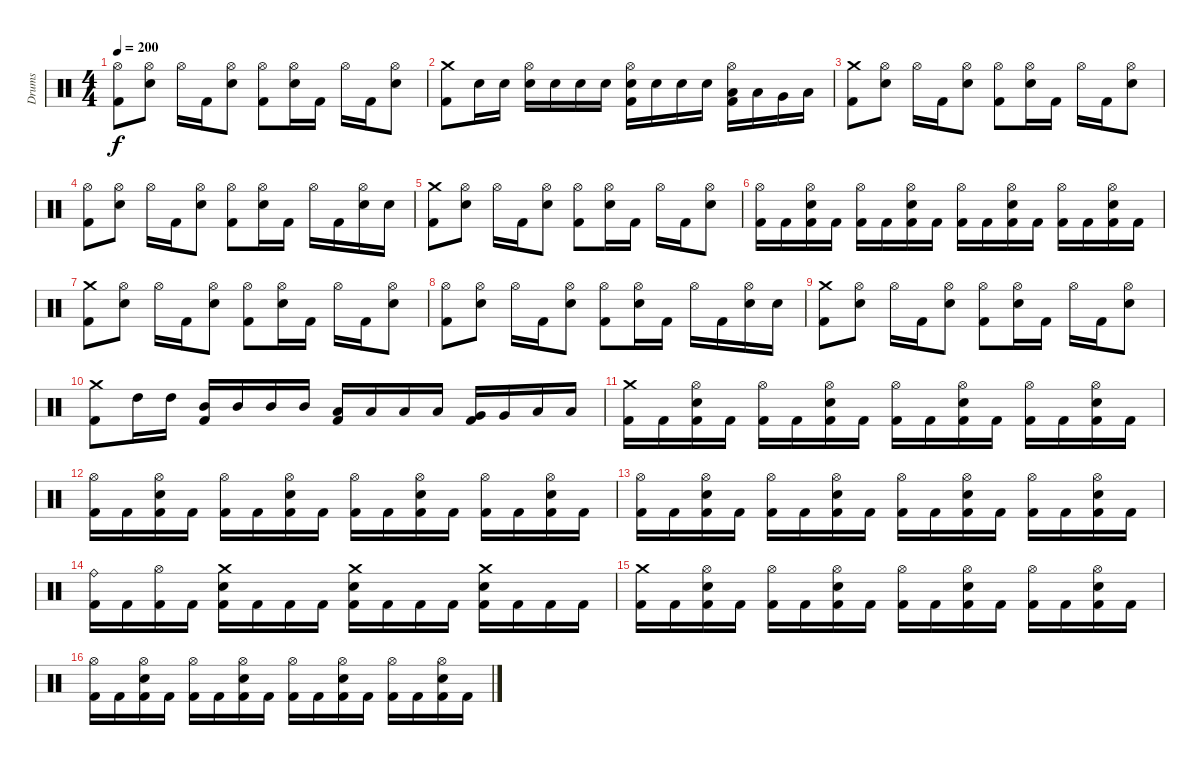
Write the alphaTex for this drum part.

\track ("Drums" "Drums") {instrument percussion}
\staff {score}
\articulation defaults
\ts (4 4)
\tempo 200
\clef neutral
\ks c
("Hi-Hat (open)" "Kick (hit) 2").8{dy f} ("Hi-Hat (open)" "Snare (hit) 2").8 "Hi-Hat (open)".16 "Kick (hit) 2".16 ("Hi-Hat (open)" "Snare (hit) 2").8 ("Hi-Hat (open)" "Kick (hit) 2").8 ("Hi-Hat (open)" "Snare (hit) 2").16 "Kick (hit) 2".16 "Hi-Hat (open)".16 "Kick (hit) 2".16 ("Hi-Hat (open)" "Snare (hit) 2").8 |
("Crash medium (hit)" "Kick (hit) 2").8 "Snare (hit) 2".16 "Snare (hit) 2".16 ("Hi-Hat (open)" "Snare (hit) 2").16 "Snare (hit) 2".16 "Snare (hit) 2".16 "Snare (hit) 2".16 ("Hi-Hat (open)" "Snare (hit) 2" "Kick (hit) 2").16 "Snare (hit) 2".16 "Snare (hit) 2".16 "Snare (hit) 2".16 ("Hi-Hat (open)" "Low Tom (hit)" "Kick (hit) 2").16 "Low Tom (hit)".16 "Very Low Tom (hit)".16 "Low Floor Tom (hit)".16 |
("Crash medium (hit)" "Kick (hit) 2").8 ("Hi-Hat (open)" "Snare (hit) 2").8 "Hi-Hat (open)".16 "Kick (hit) 2".16 ("Hi-Hat (open)" "Snare (hit) 2").8 ("Hi-Hat (open)" "Kick (hit) 2").8 ("Hi-Hat (open)" "Snare (hit) 2").16 "Kick (hit) 2".16 "Hi-Hat (open)".16 "Kick (hit) 2".16 ("Hi-Hat (open)" "Snare (hit) 2").8 |
("Hi-Hat (open)" "Kick (hit) 2").8 ("Hi-Hat (open)" "Snare (hit) 2").8 "Hi-Hat (open)".16 "Kick (hit) 2".16 ("Hi-Hat (open)" "Snare (hit) 2").8 ("Hi-Hat (open)" "Kick (hit) 2").8 ("Hi-Hat (open)" "Snare (hit) 2").16 "Kick (hit) 2".16 "Hi-Hat (open)".16 "Kick (hit) 2".16 ("Hi-Hat (open)" "Snare (hit) 2").16 "Snare (hit) 2".16 |
("Crash medium (hit)" "Kick (hit) 2").8 ("Hi-Hat (open)" "Snare (hit) 2").8 "Hi-Hat (open)".16 "Kick (hit) 2".16 ("Hi-Hat (open)" "Snare (hit) 2").8 ("Hi-Hat (open)" "Kick (hit) 2").8 ("Hi-Hat (open)" "Snare (hit) 2").16 "Kick (hit) 2".16 "Hi-Hat (open)".16 "Kick (hit) 2".16 ("Hi-Hat (open)" "Snare (hit) 2").8 |
("Hi-Hat (open)" "Kick (hit) 2").16 "Kick (hit) 2".16 ("Hi-Hat (open)" "Snare (hit) 2" "Kick (hit) 2").16 "Kick (hit) 2".16 ("Hi-Hat (open)" "Kick (hit) 2").16 "Kick (hit) 2".16 ("Hi-Hat (open)" "Snare (hit) 2" "Kick (hit) 2").16 "Kick (hit) 2".16 ("Hi-Hat (open)" "Kick (hit) 2").16 "Kick (hit) 2".16 ("Hi-Hat (open)" "Snare (hit) 2" "Kick (hit) 2").16 "Kick (hit) 2".16 ("Hi-Hat (open)" "Kick (hit) 2").16 "Kick (hit) 2".16 ("Hi-Hat (open)" "Snare (hit) 2" "Kick (hit) 2").16 "Kick (hit) 2".16 |
("Crash medium (hit)" "Kick (hit) 2").8 ("Hi-Hat (open)" "Snare (hit) 2").8 "Hi-Hat (open)".16 "Kick (hit) 2".16 ("Hi-Hat (open)" "Snare (hit) 2").8 ("Hi-Hat (open)" "Kick (hit) 2").8 ("Hi-Hat (open)" "Snare (hit) 2").16 "Kick (hit) 2".16 "Hi-Hat (open)".16 "Kick (hit) 2".16 ("Hi-Hat (open)" "Snare (hit) 2").8 |
("Hi-Hat (open)" "Kick (hit) 2").8 ("Hi-Hat (open)" "Snare (hit) 2").8 "Hi-Hat (open)".16 "Kick (hit) 2".16 ("Hi-Hat (open)" "Snare (hit) 2").8 ("Hi-Hat (open)" "Kick (hit) 2").8 ("Hi-Hat (open)" "Snare (hit) 2").16 "Kick (hit) 2".16 "Hi-Hat (open)".16 "Kick (hit) 2".16 ("Hi-Hat (open)" "Snare (hit) 2").16 "Snare (hit) 2".16 |
("Crash medium (hit)" "Kick (hit) 2").8 ("Hi-Hat (open)" "Snare (hit) 2").8 "Hi-Hat (open)".16 "Kick (hit) 2".16 ("Hi-Hat (open)" "Snare (hit) 2").8 ("Hi-Hat (open)" "Kick (hit) 2").8 ("Hi-Hat (open)" "Snare (hit) 2").16 "Kick (hit) 2".16 "Hi-Hat (open)".16 "Kick (hit) 2".16 ("Hi-Hat (open)" "Snare (hit) 2").8 |
("Crash medium (hit)" "Kick (hit) 2").8 "High Tom (hit)".16 "High Tom (hit)".16 ("Mid Tom (hit)" "Kick (hit) 2").16 "Mid Tom (hit)".16 "Mid Tom (hit)".16 "Mid Tom (hit)".16 ("Low Tom (hit)" "Kick (hit) 2").16 "Low Tom (hit)".16 "Low Tom (hit)".16 "Low Tom (hit)".16 ("Very Low Tom (hit)" "Kick (hit) 2").16 "Very Low Tom (hit)".16 "Low Floor Tom (hit)".16 "Low Floor Tom (hit)".16 |
("Crash medium (hit)" "Kick (hit) 2").16 "Kick (hit) 2".16 ("Hi-Hat (open)" "Snare (hit) 2" "Kick (hit) 2").16 "Kick (hit) 2".16 ("Hi-Hat (open)" "Kick (hit) 2").16 "Kick (hit) 2".16 ("Hi-Hat (open)" "Snare (hit) 2" "Kick (hit) 2").16 "Kick (hit) 2".16 ("Hi-Hat (open)" "Kick (hit) 2").16 "Kick (hit) 2".16 ("Hi-Hat (open)" "Snare (hit) 2" "Kick (hit) 2").16 "Kick (hit) 2".16 ("Hi-Hat (open)" "Kick (hit) 2").16 "Kick (hit) 2".16 ("Hi-Hat (open)" "Snare (hit) 2" "Kick (hit) 2").16 "Kick (hit) 2".16 |
("Hi-Hat (open)" "Kick (hit) 2").16 "Kick (hit) 2".16 ("Hi-Hat (open)" "Snare (hit) 2" "Kick (hit) 2").16 "Kick (hit) 2".16 ("Hi-Hat (open)" "Kick (hit) 2").16 "Kick (hit) 2".16 ("Hi-Hat (open)" "Snare (hit) 2" "Kick (hit) 2").16 "Kick (hit) 2".16 ("Hi-Hat (open)" "Kick (hit) 2").16 "Kick (hit) 2".16 ("Hi-Hat (open)" "Snare (hit) 2" "Kick (hit) 2").16 "Kick (hit) 2".16 ("Hi-Hat (open)" "Kick (hit) 2").16 "Kick (hit) 2".16 ("Hi-Hat (open)" "Snare (hit) 2" "Kick (hit) 2").16 "Kick (hit) 2".16 |
("Hi-Hat (open)" "Kick (hit) 2").16 "Kick (hit) 2".16 ("Hi-Hat (open)" "Snare (hit) 2" "Kick (hit) 2").16 "Kick (hit) 2".16 ("Hi-Hat (open)" "Kick (hit) 2").16 "Kick (hit) 2".16 ("Hi-Hat (open)" "Snare (hit) 2" "Kick (hit) 2").16 "Kick (hit) 2".16 ("Hi-Hat (open)" "Kick (hit) 2").16 "Kick (hit) 2".16 ("Hi-Hat (open)" "Snare (hit) 2" "Kick (hit) 2").16 "Kick (hit) 2".16 ("Hi-Hat (open)" "Kick (hit) 2").16 "Kick (hit) 2".16 ("Hi-Hat (open)" "Snare (hit) 2" "Kick (hit) 2").16 "Kick (hit) 2".16 |
("Ride (bell)" "Kick (hit) 2").16 "Kick (hit) 2".16 ("Hi-Hat (open)" "Kick (hit) 2").16 "Kick (hit) 2".16 ("Crash medium (hit)" "Snare (hit) 2" "Kick (hit) 2").16 "Kick (hit) 2".16 "Kick (hit) 2".16 "Kick (hit) 2".16 ("Crash medium (hit)" "Snare (hit) 2" "Kick (hit) 2").16 "Kick (hit) 2".16 "Kick (hit) 2".16 "Kick (hit) 2".16 ("Crash medium (hit)" "Snare (hit) 2" "Kick (hit) 2").16 "Kick (hit) 2".16 "Kick (hit) 2".16 "Kick (hit) 2".16 |
("Crash medium (hit)" "Kick (hit) 2").16 "Kick (hit) 2".16 ("Hi-Hat (open)" "Snare (hit) 2" "Kick (hit) 2").16 "Kick (hit) 2".16 ("Hi-Hat (open)" "Kick (hit) 2").16 "Kick (hit) 2".16 ("Hi-Hat (open)" "Snare (hit) 2" "Kick (hit) 2").16 "Kick (hit) 2".16 ("Hi-Hat (open)" "Kick (hit) 2").16 "Kick (hit) 2".16 ("Hi-Hat (open)" "Snare (hit) 2" "Kick (hit) 2").16 "Kick (hit) 2".16 ("Hi-Hat (open)" "Kick (hit) 2").16 "Kick (hit) 2".16 ("Hi-Hat (open)" "Snare (hit) 2" "Kick (hit) 2").16 "Kick (hit) 2".16 |
("Hi-Hat (open)" "Kick (hit) 2").16 "Kick (hit) 2".16 ("Hi-Hat (open)" "Snare (hit) 2" "Kick (hit) 2").16 "Kick (hit) 2".16 ("Hi-Hat (open)" "Kick (hit) 2").16 "Kick (hit) 2".16 ("Hi-Hat (open)" "Snare (hit) 2" "Kick (hit) 2").16 "Kick (hit) 2".16 ("Hi-Hat (open)" "Kick (hit) 2").16 "Kick (hit) 2".16 ("Hi-Hat (open)" "Snare (hit) 2" "Kick (hit) 2").16 "Kick (hit) 2".16 ("Hi-Hat (open)" "Kick (hit) 2").16 "Kick (hit) 2".16 ("Hi-Hat (open)" "Snare (hit) 2" "Kick (hit) 2").16 "Kick (hit) 2".16
